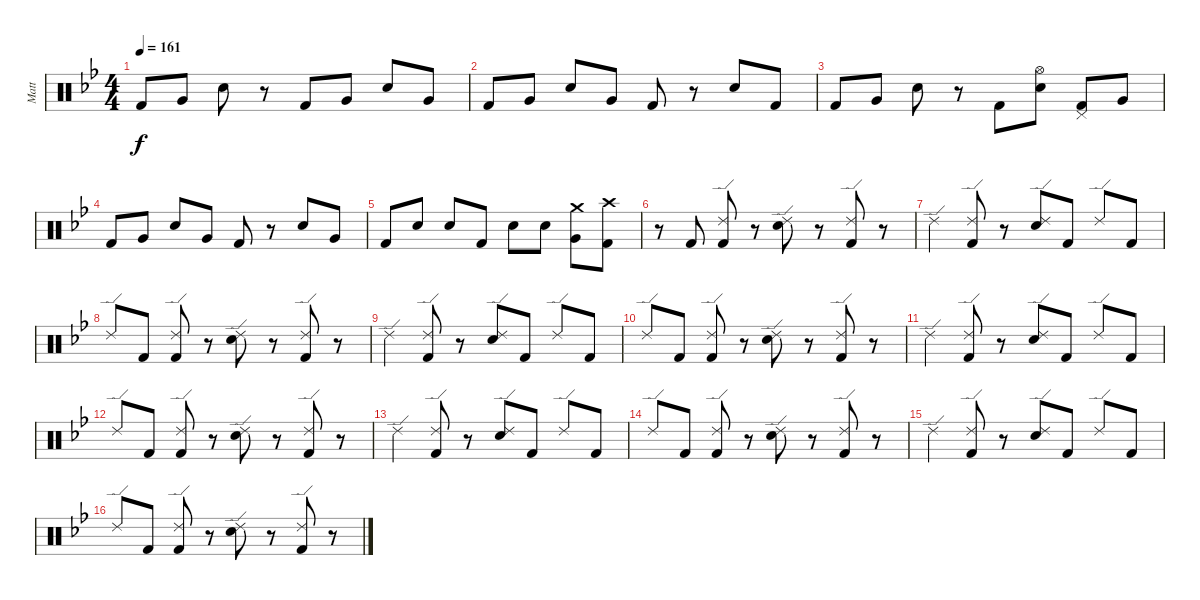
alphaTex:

\track ("Matt" "Matt") {instrument percussion}
\staff {score}
\articulation defaults
\ts (4 4)
\tempo 161
\clef neutral
\ks bb "Kick (hit) 2".8{dy f} "Very Low Tom (hit)".8 "Snare (hit) 2".8
r.8 "Kick (hit) 2".8 "Very Low Tom (hit)".8 "Snare (hit) 2".8 "Very Low Tom (hit)".8 |
"Kick (hit) 2".8 "Very Low Tom (hit)".8 "Snare (hit) 2".8 "Very Low Tom (hit)".8 "Kick (hit) 2".8 r.8 "Snare (hit) 2".8 "Kick (hit) 2".8 |
"Kick (hit) 2".8 "Very Low Tom (hit)".8 "Snare (hit) 2".8 r.8 "Kick (hit) 2".8 ("Hi-Hat (open)" "Snare (hit) 2").8 ("Pedal Hi-Hat (hit)" "Kick (hit) 2").8 "Very Low Tom (hit)".8 |
"Kick (hit) 2".8 "Very Low Tom (hit)".8 "Snare (hit) 2".8 "Very Low Tom (hit)".8 "Kick (hit) 2".8 r.8 "Snare (hit) 2".8 "Very Low Tom (hit)".8 |
"Kick (hit) 2".8 "Snare (hit) 2".8 "Snare (hit) 2".8 "Kick (hit) 2".8 "Snare (hit) 2".8 "Snare (hit) 2".8 ("Crash medium (hit)" "Very Low Tom (hit)").8 ("Crash high (hit)" "Kick (hit) 2").8 |
r.8 "Kick (hit) 2".8 ("Ride (edge) 2" "Kick (hit) 2").8 r.8 ("Ride (edge) 2" "Snare (hit) 2").8 r.8 ("Ride (edge) 2" "Kick (hit) 2").8 r.8 |
"Ride (edge) 2".4 ("Ride (edge) 2" "Kick (hit) 2").8 r.8 ("Ride (edge) 2" "Snare (hit) 2").8 "Kick (hit) 2".8 "Ride (edge) 2".8 "Kick (hit) 2".8 |
"Ride (edge) 2".8 "Kick (hit) 2".8 ("Ride (edge) 2" "Kick (hit) 2").8 r.8 ("Ride (edge) 2" "Snare (hit) 2").8 r.8 ("Ride (edge) 2" "Kick (hit) 2").8 r.8 |
"Ride (edge) 2".4 ("Ride (edge) 2" "Kick (hit) 2").8 r.8 ("Ride (edge) 2" "Snare (hit) 2").8 "Kick (hit) 2".8 "Ride (edge) 2".8 "Kick (hit) 2".8 |
"Ride (edge) 2".8 "Kick (hit) 2".8 ("Ride (edge) 2" "Kick (hit) 2").8 r.8 ("Ride (edge) 2" "Snare (hit) 2").8 r.8 ("Ride (edge) 2" "Kick (hit) 2").8 r.8 |
"Ride (edge) 2".4 ("Ride (edge) 2" "Kick (hit) 2").8 r.8 ("Ride (edge) 2" "Snare (hit) 2").8 "Kick (hit) 2".8 "Ride (edge) 2".8 "Kick (hit) 2".8 |
"Ride (edge) 2".8 "Kick (hit) 2".8 ("Ride (edge) 2" "Kick (hit) 2").8 r.8 ("Ride (edge) 2" "Snare (hit) 2").8 r.8 ("Ride (edge) 2" "Kick (hit) 2").8 r.8 |
"Ride (edge) 2".4 ("Ride (edge) 2" "Kick (hit) 2").8 r.8 ("Ride (edge) 2" "Snare (hit) 2").8 "Kick (hit) 2".8 "Ride (edge) 2".8 "Kick (hit) 2".8 |
"Ride (edge) 2".8 "Kick (hit) 2".8 ("Ride (edge) 2" "Kick (hit) 2").8 r.8 ("Ride (edge) 2" "Snare (hit) 2").8 r.8 ("Ride (edge) 2" "Kick (hit) 2").8 r.8 |
"Ride (edge) 2".4 ("Ride (edge) 2" "Kick (hit) 2").8 r.8 ("Ride (edge) 2" "Snare (hit) 2").8 "Kick (hit) 2".8 "Ride (edge) 2".8 "Kick (hit) 2".8 |
"Ride (edge) 2".8 "Kick (hit) 2".8 ("Ride (edge) 2" "Kick (hit) 2").8 r.8 ("Ride (edge) 2" "Snare (hit) 2").8 r.8 ("Ride (edge) 2" "Kick (hit) 2").8 r.8
